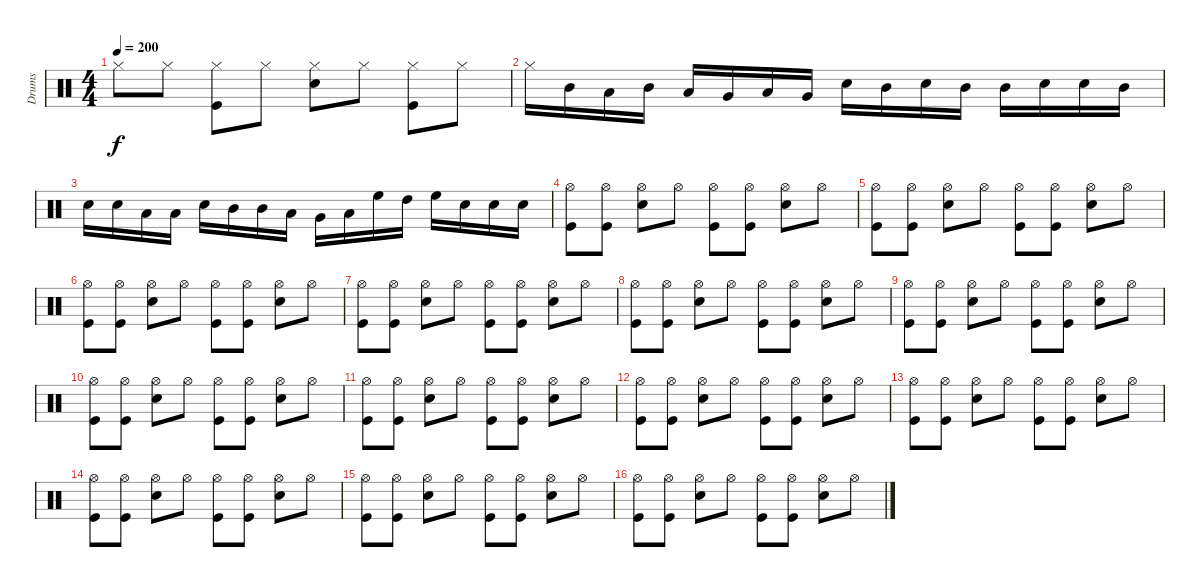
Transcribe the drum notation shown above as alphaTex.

\track ("Drums" "Drums") {instrument percussion}
\staff {score}
\articulation defaults
\ts (4 4)
\tempo 200
\clef neutral
\ks c "Hi-Hat (closed)".8{dy f} "Hi-Hat (closed)".8
("Kick (hit)" "Hi-Hat (closed)").8 "Hi-Hat (closed)".8 ("Electric Snare (hit)" "Hi-Hat (closed)").8 "Hi-Hat (closed)".8 ("Hi-Hat (closed)" "Kick (hit)").8 "Hi-Hat (closed)".8 |
"Hi-Hat (closed)".16 "Mid Tom (hit)".16 "Low Tom (hit)".16 "Mid Tom (hit)".16 "Low Floor Tom (hit)".16 "Very Low Tom (hit)".16 "Low Floor Tom (hit)".16 "Very Low Tom (hit)".16 "Electric Snare (hit)".16 "Mid Tom (hit)".16 "Electric Snare (hit)".16 "Mid Tom (hit)".16 "Mid Tom (hit)".16 "Electric Snare (hit)".16 "Electric Snare (hit)".16 "Mid Tom (hit)".16 |
"Electric Snare (hit)".16 "Electric Snare (hit)".16 "Low Tom (hit)".16 "Low Tom (hit)".16 "Electric Snare (hit)".16 "Mid Tom (hit)".16 "Mid Tom (hit)".16 "Low Tom (hit)".16 "Very Low Tom (hit)".16 "Low Floor Tom (hit)".16 "High Floor Tom (hit)".16 "High Tom (hit)".16 "High Floor Tom (hit)".16 "Electric Snare (hit)".16 "Electric Snare (hit)".16 "Electric Snare (hit)".16 |
("Kick (hit)" "Hi-Hat (open)").8 ("Kick (hit)" "Hi-Hat (open)").8 ("Electric Snare (hit)" "Hi-Hat (open)").8 "Hi-Hat (open)".8 ("Kick (hit)" "Hi-Hat (open)").8 ("Kick (hit)" "Hi-Hat (open)").8 ("Electric Snare (hit)" "Hi-Hat (open)").8 "Hi-Hat (open)".8 |
("Kick (hit)" "Hi-Hat (open)").8 ("Kick (hit)" "Hi-Hat (open)").8 ("Electric Snare (hit)" "Hi-Hat (open)").8 "Hi-Hat (open)".8 ("Kick (hit)" "Hi-Hat (open)").8 ("Kick (hit)" "Hi-Hat (open)").8 ("Electric Snare (hit)" "Hi-Hat (open)").8 "Hi-Hat (open)".8 |
("Kick (hit)" "Hi-Hat (open)").8 ("Kick (hit)" "Hi-Hat (open)").8 ("Electric Snare (hit)" "Hi-Hat (open)").8 "Hi-Hat (open)".8 ("Kick (hit)" "Hi-Hat (open)").8 ("Kick (hit)" "Hi-Hat (open)").8 ("Electric Snare (hit)" "Hi-Hat (open)").8 "Hi-Hat (open)".8 |
("Kick (hit)" "Hi-Hat (open)").8 ("Kick (hit)" "Hi-Hat (open)").8 ("Electric Snare (hit)" "Hi-Hat (open)").8 "Hi-Hat (open)".8 ("Kick (hit)" "Hi-Hat (open)").8 ("Kick (hit)" "Hi-Hat (open)").8 ("Electric Snare (hit)" "Hi-Hat (open)").8 "Hi-Hat (open)".8 |
("Kick (hit)" "Hi-Hat (open)").8 ("Kick (hit)" "Hi-Hat (open)").8 ("Electric Snare (hit)" "Hi-Hat (open)").8 "Hi-Hat (open)".8 ("Kick (hit)" "Hi-Hat (open)").8 ("Kick (hit)" "Hi-Hat (open)").8 ("Electric Snare (hit)" "Hi-Hat (open)").8 "Hi-Hat (open)".8 |
("Kick (hit)" "Hi-Hat (open)").8 ("Kick (hit)" "Hi-Hat (open)").8 ("Electric Snare (hit)" "Hi-Hat (open)").8 "Hi-Hat (open)".8 ("Kick (hit)" "Hi-Hat (open)").8 ("Kick (hit)" "Hi-Hat (open)").8 ("Electric Snare (hit)" "Hi-Hat (open)").8 "Hi-Hat (open)".8 |
("Kick (hit)" "Hi-Hat (open)").8 ("Kick (hit)" "Hi-Hat (open)").8 ("Electric Snare (hit)" "Hi-Hat (open)").8 "Hi-Hat (open)".8 ("Kick (hit)" "Hi-Hat (open)").8 ("Kick (hit)" "Hi-Hat (open)").8 ("Electric Snare (hit)" "Hi-Hat (open)").8 "Hi-Hat (open)".8 |
("Kick (hit)" "Hi-Hat (open)").8 ("Kick (hit)" "Hi-Hat (open)").8 ("Electric Snare (hit)" "Hi-Hat (open)").8 "Hi-Hat (open)".8 ("Kick (hit)" "Hi-Hat (open)").8 ("Kick (hit)" "Hi-Hat (open)").8 ("Electric Snare (hit)" "Hi-Hat (open)").8 "Hi-Hat (open)".8 |
("Kick (hit)" "Hi-Hat (open)").8 ("Kick (hit)" "Hi-Hat (open)").8 ("Electric Snare (hit)" "Hi-Hat (open)").8 "Hi-Hat (open)".8 ("Kick (hit)" "Hi-Hat (open)").8 ("Kick (hit)" "Hi-Hat (open)").8 ("Electric Snare (hit)" "Hi-Hat (open)").8 "Hi-Hat (open)".8 |
("Kick (hit)" "Hi-Hat (open)").8 ("Kick (hit)" "Hi-Hat (open)").8 ("Electric Snare (hit)" "Hi-Hat (open)").8 "Hi-Hat (open)".8 ("Kick (hit)" "Hi-Hat (open)").8 ("Kick (hit)" "Hi-Hat (open)").8 ("Electric Snare (hit)" "Hi-Hat (open)").8 "Hi-Hat (open)".8 |
("Kick (hit)" "Hi-Hat (open)").8 ("Kick (hit)" "Hi-Hat (open)").8 ("Electric Snare (hit)" "Hi-Hat (open)").8 "Hi-Hat (open)".8 ("Kick (hit)" "Hi-Hat (open)").8 ("Kick (hit)" "Hi-Hat (open)").8 ("Electric Snare (hit)" "Hi-Hat (open)").8 "Hi-Hat (open)".8 |
("Kick (hit)" "Hi-Hat (open)").8 ("Kick (hit)" "Hi-Hat (open)").8 ("Electric Snare (hit)" "Hi-Hat (open)").8 "Hi-Hat (open)".8 ("Kick (hit)" "Hi-Hat (open)").8 ("Kick (hit)" "Hi-Hat (open)").8 ("Electric Snare (hit)" "Hi-Hat (open)").8 "Hi-Hat (open)".8 |
("Kick (hit)" "Hi-Hat (open)").8 ("Kick (hit)" "Hi-Hat (open)").8 ("Electric Snare (hit)" "Hi-Hat (open)").8 "Hi-Hat (open)".8 ("Kick (hit)" "Hi-Hat (open)").8 ("Kick (hit)" "Hi-Hat (open)").8 ("Electric Snare (hit)" "Hi-Hat (open)").8 "Hi-Hat (open)".8
